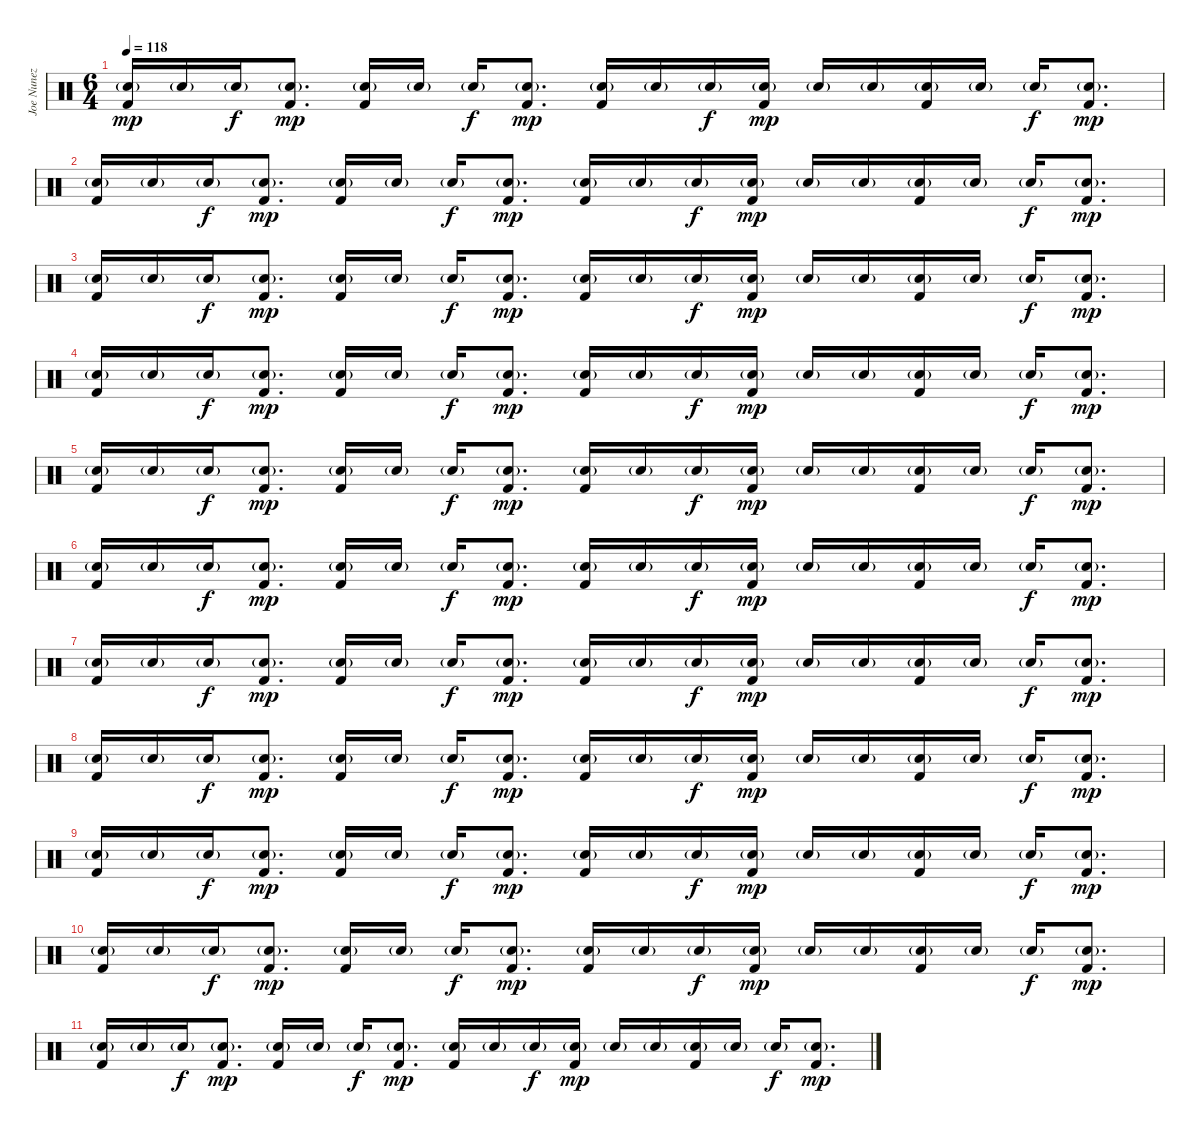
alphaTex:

\track ("Joe Nunez" "Joe Nunez") {instrument percussion}
\staff {score}
\articulation defaults
\ts (6 4)
\tempo 118
\clef neutral
\ks c
("Electric Snare (hit)"{g} "Kick (hit) 2").16{dy mp} "Electric Snare (hit)"{g}.16 "Electric Snare (hit)"{g}.16{dy f} ("Electric Snare (hit)"{g} "Kick (hit) 2").8{d dy mp} ("Electric Snare (hit)"{g} "Kick (hit) 2").16 "Electric Snare (hit)"{g}.16 "Electric Snare (hit)"{g}.16{dy f} ("Electric Snare (hit)"{g} "Kick (hit) 2").8{d dy mp} ("Electric Snare (hit)"{g} "Kick (hit) 2").16 "Electric Snare (hit)"{g}.16 "Electric Snare (hit)"{g}.16{dy f} ("Electric Snare (hit)"{g} "Kick (hit) 2").16{dy mp} "Electric Snare (hit)"{g}.16 "Electric Snare (hit)"{g}.16 ("Electric Snare (hit)"{g} "Kick (hit) 2").16 "Electric Snare (hit)"{g}.16 "Electric Snare (hit)"{g}.16{dy f} ("Electric Snare (hit)"{g} "Kick (hit) 2").8{d dy mp} |
("Electric Snare (hit)"{g} "Kick (hit) 2").16 "Electric Snare (hit)"{g}.16 "Electric Snare (hit)"{g}.16{dy f} ("Electric Snare (hit)"{g} "Kick (hit) 2").8{d dy mp} ("Electric Snare (hit)"{g} "Kick (hit) 2").16 "Electric Snare (hit)"{g}.16 "Electric Snare (hit)"{g}.16{dy f} ("Electric Snare (hit)"{g} "Kick (hit) 2").8{d dy mp} ("Electric Snare (hit)"{g} "Kick (hit) 2").16 "Electric Snare (hit)"{g}.16 "Electric Snare (hit)"{g}.16{dy f} ("Electric Snare (hit)"{g} "Kick (hit) 2").16{dy mp} "Electric Snare (hit)"{g}.16 "Electric Snare (hit)"{g}.16 ("Electric Snare (hit)"{g} "Kick (hit) 2").16 "Electric Snare (hit)"{g}.16 "Electric Snare (hit)"{g}.16{dy f} ("Electric Snare (hit)"{g} "Kick (hit) 2").8{d dy mp} |
("Electric Snare (hit)"{g} "Kick (hit) 2").16 "Electric Snare (hit)"{g}.16 "Electric Snare (hit)"{g}.16{dy f} ("Electric Snare (hit)"{g} "Kick (hit) 2").8{d dy mp} ("Electric Snare (hit)"{g} "Kick (hit) 2").16 "Electric Snare (hit)"{g}.16 "Electric Snare (hit)"{g}.16{dy f} ("Electric Snare (hit)"{g} "Kick (hit) 2").8{d dy mp} ("Electric Snare (hit)"{g} "Kick (hit) 2").16 "Electric Snare (hit)"{g}.16 "Electric Snare (hit)"{g}.16{dy f} ("Electric Snare (hit)"{g} "Kick (hit) 2").16{dy mp} "Electric Snare (hit)"{g}.16 "Electric Snare (hit)"{g}.16 ("Electric Snare (hit)"{g} "Kick (hit) 2").16 "Electric Snare (hit)"{g}.16 "Electric Snare (hit)"{g}.16{dy f} ("Electric Snare (hit)"{g} "Kick (hit) 2").8{d dy mp} |
("Electric Snare (hit)"{g} "Kick (hit) 2").16 "Electric Snare (hit)"{g}.16 "Electric Snare (hit)"{g}.16{dy f} ("Electric Snare (hit)"{g} "Kick (hit) 2").8{d dy mp} ("Electric Snare (hit)"{g} "Kick (hit) 2").16 "Electric Snare (hit)"{g}.16 "Electric Snare (hit)"{g}.16{dy f} ("Electric Snare (hit)"{g} "Kick (hit) 2").8{d dy mp} ("Electric Snare (hit)"{g} "Kick (hit) 2").16 "Electric Snare (hit)"{g}.16 "Electric Snare (hit)"{g}.16{dy f} ("Electric Snare (hit)"{g} "Kick (hit) 2").16{dy mp} "Electric Snare (hit)"{g}.16 "Electric Snare (hit)"{g}.16 ("Electric Snare (hit)"{g} "Kick (hit) 2").16 "Electric Snare (hit)"{g}.16 "Electric Snare (hit)"{g}.16{dy f} ("Electric Snare (hit)"{g} "Kick (hit) 2").8{d dy mp} |
("Electric Snare (hit)"{g} "Kick (hit) 2").16 "Electric Snare (hit)"{g}.16 "Electric Snare (hit)"{g}.16{dy f} ("Electric Snare (hit)"{g} "Kick (hit) 2").8{d dy mp} ("Electric Snare (hit)"{g} "Kick (hit) 2").16 "Electric Snare (hit)"{g}.16 "Electric Snare (hit)"{g}.16{dy f} ("Electric Snare (hit)"{g} "Kick (hit) 2").8{d dy mp} ("Electric Snare (hit)"{g} "Kick (hit) 2").16 "Electric Snare (hit)"{g}.16 "Electric Snare (hit)"{g}.16{dy f} ("Electric Snare (hit)"{g} "Kick (hit) 2").16{dy mp} "Electric Snare (hit)"{g}.16 "Electric Snare (hit)"{g}.16 ("Electric Snare (hit)"{g} "Kick (hit) 2").16 "Electric Snare (hit)"{g}.16 "Electric Snare (hit)"{g}.16{dy f} ("Electric Snare (hit)"{g} "Kick (hit) 2").8{d dy mp} |
("Electric Snare (hit)"{g} "Kick (hit) 2").16 "Electric Snare (hit)"{g}.16 "Electric Snare (hit)"{g}.16{dy f} ("Electric Snare (hit)"{g} "Kick (hit) 2").8{d dy mp} ("Electric Snare (hit)"{g} "Kick (hit) 2").16 "Electric Snare (hit)"{g}.16 "Electric Snare (hit)"{g}.16{dy f} ("Electric Snare (hit)"{g} "Kick (hit) 2").8{d dy mp} ("Electric Snare (hit)"{g} "Kick (hit) 2").16 "Electric Snare (hit)"{g}.16 "Electric Snare (hit)"{g}.16{dy f} ("Electric Snare (hit)"{g} "Kick (hit) 2").16{dy mp} "Electric Snare (hit)"{g}.16 "Electric Snare (hit)"{g}.16 ("Electric Snare (hit)"{g} "Kick (hit) 2").16 "Electric Snare (hit)"{g}.16 "Electric Snare (hit)"{g}.16{dy f} ("Electric Snare (hit)"{g} "Kick (hit) 2").8{d dy mp} |
("Electric Snare (hit)"{g} "Kick (hit) 2").16 "Electric Snare (hit)"{g}.16 "Electric Snare (hit)"{g}.16{dy f} ("Electric Snare (hit)"{g} "Kick (hit) 2").8{d dy mp} ("Electric Snare (hit)"{g} "Kick (hit) 2").16 "Electric Snare (hit)"{g}.16 "Electric Snare (hit)"{g}.16{dy f} ("Electric Snare (hit)"{g} "Kick (hit) 2").8{d dy mp} ("Electric Snare (hit)"{g} "Kick (hit) 2").16 "Electric Snare (hit)"{g}.16 "Electric Snare (hit)"{g}.16{dy f} ("Electric Snare (hit)"{g} "Kick (hit) 2").16{dy mp} "Electric Snare (hit)"{g}.16 "Electric Snare (hit)"{g}.16 ("Electric Snare (hit)"{g} "Kick (hit) 2").16 "Electric Snare (hit)"{g}.16 "Electric Snare (hit)"{g}.16{dy f} ("Electric Snare (hit)"{g} "Kick (hit) 2").8{d dy mp} |
("Electric Snare (hit)"{g} "Kick (hit) 2").16 "Electric Snare (hit)"{g}.16 "Electric Snare (hit)"{g}.16{dy f} ("Electric Snare (hit)"{g} "Kick (hit) 2").8{d dy mp} ("Electric Snare (hit)"{g} "Kick (hit) 2").16 "Electric Snare (hit)"{g}.16 "Electric Snare (hit)"{g}.16{dy f} ("Electric Snare (hit)"{g} "Kick (hit) 2").8{d dy mp} ("Electric Snare (hit)"{g} "Kick (hit) 2").16 "Electric Snare (hit)"{g}.16 "Electric Snare (hit)"{g}.16{dy f} ("Electric Snare (hit)"{g} "Kick (hit) 2").16{dy mp} "Electric Snare (hit)"{g}.16 "Electric Snare (hit)"{g}.16 ("Electric Snare (hit)"{g} "Kick (hit) 2").16 "Electric Snare (hit)"{g}.16 "Electric Snare (hit)"{g}.16{dy f} ("Electric Snare (hit)"{g} "Kick (hit) 2").8{d dy mp} |
("Electric Snare (hit)"{g} "Kick (hit) 2").16 "Electric Snare (hit)"{g}.16 "Electric Snare (hit)"{g}.16{dy f} ("Electric Snare (hit)"{g} "Kick (hit) 2").8{d dy mp} ("Electric Snare (hit)"{g} "Kick (hit) 2").16 "Electric Snare (hit)"{g}.16 "Electric Snare (hit)"{g}.16{dy f} ("Electric Snare (hit)"{g} "Kick (hit) 2").8{d dy mp} ("Electric Snare (hit)"{g} "Kick (hit) 2").16 "Electric Snare (hit)"{g}.16 "Electric Snare (hit)"{g}.16{dy f} ("Electric Snare (hit)"{g} "Kick (hit) 2").16{dy mp} "Electric Snare (hit)"{g}.16 "Electric Snare (hit)"{g}.16 ("Electric Snare (hit)"{g} "Kick (hit) 2").16 "Electric Snare (hit)"{g}.16 "Electric Snare (hit)"{g}.16{dy f} ("Electric Snare (hit)"{g} "Kick (hit) 2").8{d dy mp} |
("Electric Snare (hit)"{g} "Kick (hit) 2").16 "Electric Snare (hit)"{g}.16 "Electric Snare (hit)"{g}.16{dy f} ("Electric Snare (hit)"{g} "Kick (hit) 2").8{d dy mp} ("Electric Snare (hit)"{g} "Kick (hit) 2").16 "Electric Snare (hit)"{g}.16 "Electric Snare (hit)"{g}.16{dy f} ("Electric Snare (hit)"{g} "Kick (hit) 2").8{d dy mp} ("Electric Snare (hit)"{g} "Kick (hit) 2").16 "Electric Snare (hit)"{g}.16 "Electric Snare (hit)"{g}.16{dy f} ("Electric Snare (hit)"{g} "Kick (hit) 2").16{dy mp} "Electric Snare (hit)"{g}.16 "Electric Snare (hit)"{g}.16 ("Electric Snare (hit)"{g} "Kick (hit) 2").16 "Electric Snare (hit)"{g}.16 "Electric Snare (hit)"{g}.16{dy f} ("Electric Snare (hit)"{g} "Kick (hit) 2").8{d dy mp} |
("Electric Snare (hit)"{g} "Kick (hit) 2").16 "Electric Snare (hit)"{g}.16 "Electric Snare (hit)"{g}.16{dy f} ("Electric Snare (hit)"{g} "Kick (hit) 2").8{d dy mp} ("Electric Snare (hit)"{g} "Kick (hit) 2").16 "Electric Snare (hit)"{g}.16 "Electric Snare (hit)"{g}.16{dy f} ("Electric Snare (hit)"{g} "Kick (hit) 2").8{d dy mp} ("Electric Snare (hit)"{g} "Kick (hit) 2").16 "Electric Snare (hit)"{g}.16 "Electric Snare (hit)"{g}.16{dy f} ("Electric Snare (hit)"{g} "Kick (hit) 2").16{dy mp} "Electric Snare (hit)"{g}.16 "Electric Snare (hit)"{g}.16 ("Electric Snare (hit)"{g} "Kick (hit) 2").16 "Electric Snare (hit)"{g}.16 "Electric Snare (hit)"{g}.16{dy f} ("Electric Snare (hit)"{g} "Kick (hit) 2").8{d dy mp}
